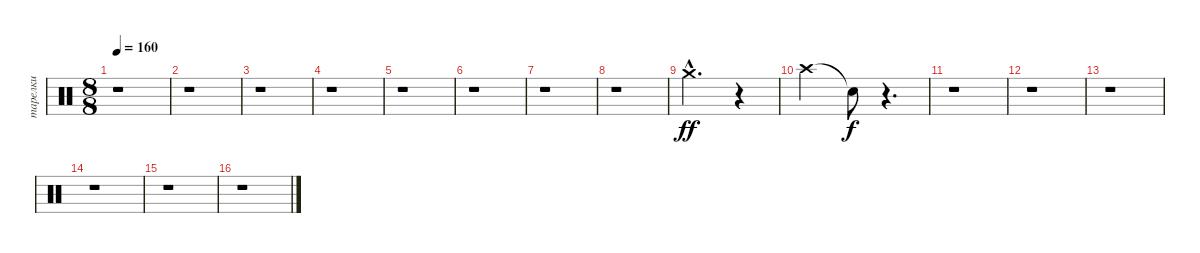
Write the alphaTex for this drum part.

\track ("тарелки" "тарелки") {instrument percussion}
\staff {score}
\articulation defaults
\ts (8 8)
\tempo 160
\clef neutral
\ks c
r.1{dy ff} |
r.1 |
r.1 |
r.1 |
r.1 |
r.1 |
r.1 |
r.1 |
"Crash medium (hit)"{hac}.2{d} r.4 |
"Crash high (hit)".2 "Snare (hit)"{t}.8{dy f} r.4{d} |
r.1 |
r.1 |
r.1 |
r.1 |
r.1 |
r.1
